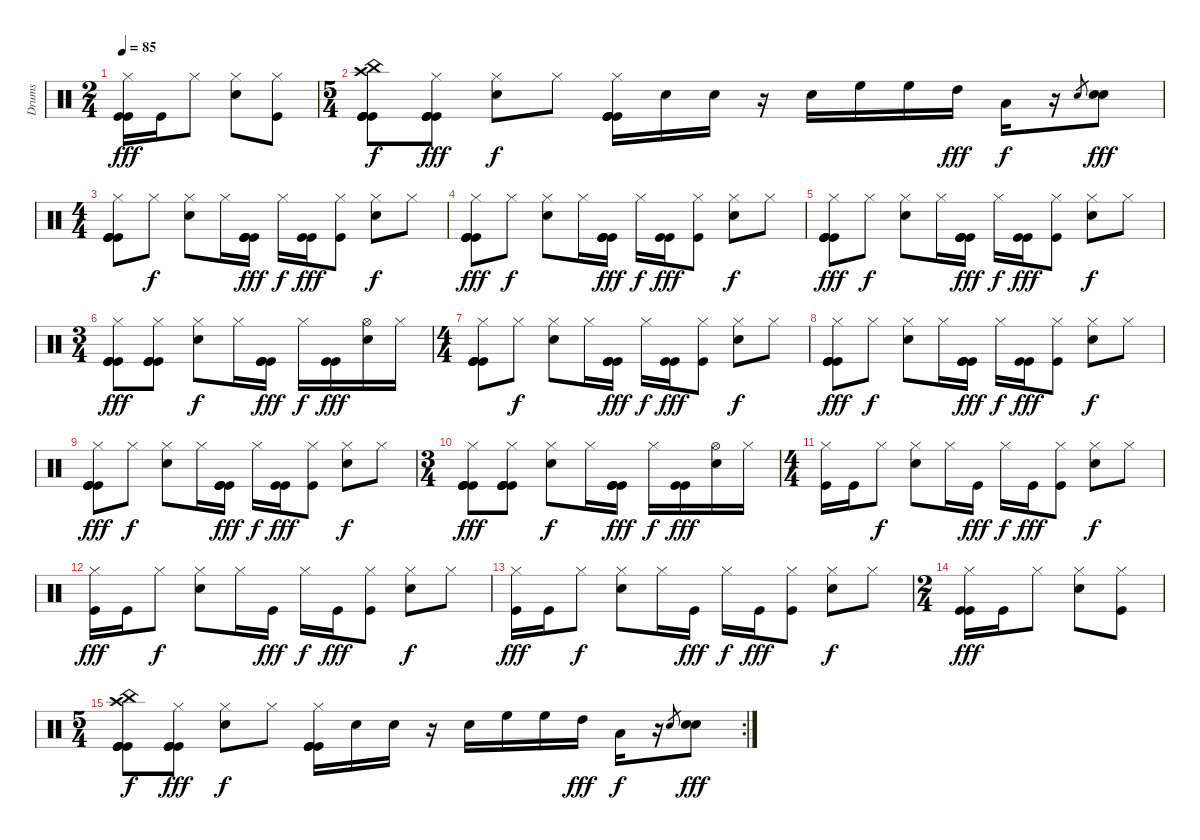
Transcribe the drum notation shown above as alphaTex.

\track ("Drums" "Drums") {instrument percussion}
\staff {score}
\articulation defaults
\ts (2 4)
\tempo 85
\clef neutral
\ks c
("Hi-Hat (closed)" "Kick (hit)" "Kick (hit)").16{dy fff} "Kick (hit)".16 "Hi-Hat (closed)".8 ("Snare (hit) 2" "Hi-Hat (closed)").8 ("Hi-Hat (closed)" "Kick (hit)").8 |
\ts (5 4)
("Kick (hit)" "China (hit)" "Kick (hit)" "Kick (hit)" "Kick (hit)" "Crash high (hit)").8{dy f} ("Hi-Hat (closed)" "Kick (hit)" "Kick (hit)" "Kick (hit)" "Kick (hit)").8{dy fff} ("Snare (hit) 2" "Hi-Hat (closed)").8{dy f} "Hi-Hat (closed)".8 ("Hi-Hat (closed)" "Kick (hit)" "Kick (hit)" "Kick (hit)" "Kick (hit)").16 "Snare (hit) 2".16 "Snare (hit) 2".16 r.16 "Snare (hit) 2".16 "High Floor Tom (hit)".16 "High Floor Tom (hit)".16 "High Tom (hit)".16{dy fff} "Low Tom (hit)".16{dy f} r.16 "Snare (hit) 2".8{gr} ("Snare (hit) 2" "Snare (hit) 2").8{dy fff} |
\ts (4 4)
("Hi-Hat (closed)" "Kick (hit)" "Kick (hit)" "Kick (hit)" "Kick (hit)").8 "Hi-Hat (closed)".8{dy f} ("Hi-Hat (closed)" "Snare (hit) 2").8 "Hi-Hat (closed)".16 ("Kick (hit)" "Kick (hit)" "Kick (hit)" "Kick (hit)").16{dy fff} "Hi-Hat (closed)".16{dy f} ("Kick (hit)" "Kick (hit)").16{dy fff} ("Kick (hit)" "Hi-Hat (closed)").8 ("Snare (hit) 2" "Hi-Hat (closed)").8{dy f} "Hi-Hat (closed)".8 |
("Hi-Hat (closed)" "Kick (hit)" "Kick (hit)" "Kick (hit)" "Kick (hit)").8{dy fff} "Hi-Hat (closed)".8{dy f} ("Hi-Hat (closed)" "Snare (hit) 2").8 "Hi-Hat (closed)".16 ("Kick (hit)" "Kick (hit)" "Kick (hit)" "Kick (hit)").16{dy fff} "Hi-Hat (closed)".16{dy f} ("Kick (hit)" "Kick (hit)").16{dy fff} ("Kick (hit)" "Hi-Hat (closed)").8 ("Snare (hit) 2" "Hi-Hat (closed)").8{dy f} "Hi-Hat (closed)".8 |
("Hi-Hat (closed)" "Kick (hit)" "Kick (hit)" "Kick (hit)" "Kick (hit)").8{dy fff} "Hi-Hat (closed)".8{dy f} ("Hi-Hat (closed)" "Snare (hit) 2").8 "Hi-Hat (closed)".16 ("Kick (hit)" "Kick (hit)" "Kick (hit)" "Kick (hit)").16{dy fff} "Hi-Hat (closed)".16{dy f} ("Kick (hit)" "Kick (hit)").16{dy fff} ("Kick (hit)" "Hi-Hat (closed)").8 ("Snare (hit) 2" "Hi-Hat (closed)").8{dy f} "Hi-Hat (closed)".8 |
\ts (3 4)
("Hi-Hat (closed)" "Kick (hit)" "Kick (hit)" "Kick (hit)" "Kick (hit)").8{dy fff} ("Hi-Hat (closed)" "Kick (hit)" "Kick (hit)" "Kick (hit)" "Kick (hit)").8 ("Hi-Hat (closed)" "Snare (hit) 2").8{dy f} "Hi-Hat (closed)".16 ("Kick (hit)" "Kick (hit)" "Kick (hit)" "Kick (hit)").16{dy fff} "Hi-Hat (closed)".16{dy f} ("Kick (hit)" "Kick (hit)").16{dy fff} ("Snare (hit) 2" "Hi-Hat (open)").16 "Hi-Hat (closed)".16 |
\ts (4 4)
("Hi-Hat (closed)" "Kick (hit)" "Kick (hit)" "Kick (hit)" "Kick (hit)").8 "Hi-Hat (closed)".8{dy f} ("Hi-Hat (closed)" "Snare (hit) 2").8 "Hi-Hat (closed)".16 ("Kick (hit)" "Kick (hit)" "Kick (hit)" "Kick (hit)").16{dy fff} "Hi-Hat (closed)".16{dy f} ("Kick (hit)" "Kick (hit)").16{dy fff} ("Kick (hit)" "Hi-Hat (closed)").8 ("Snare (hit) 2" "Hi-Hat (closed)").8{dy f} "Hi-Hat (closed)".8 |
("Hi-Hat (closed)" "Kick (hit)" "Kick (hit)" "Kick (hit)" "Kick (hit)").8{dy fff} "Hi-Hat (closed)".8{dy f} ("Hi-Hat (closed)" "Snare (hit) 2").8 "Hi-Hat (closed)".16 ("Kick (hit)" "Kick (hit)" "Kick (hit)" "Kick (hit)").16{dy fff} "Hi-Hat (closed)".16{dy f} ("Kick (hit)" "Kick (hit)").16{dy fff} ("Kick (hit)" "Hi-Hat (closed)").8 ("Snare (hit) 2" "Hi-Hat (closed)").8{dy f} "Hi-Hat (closed)".8 |
("Hi-Hat (closed)" "Kick (hit)" "Kick (hit)" "Kick (hit)" "Kick (hit)").8{dy fff} "Hi-Hat (closed)".8{dy f} ("Hi-Hat (closed)" "Snare (hit) 2").8 "Hi-Hat (closed)".16 ("Kick (hit)" "Kick (hit)" "Kick (hit)" "Kick (hit)").16{dy fff} "Hi-Hat (closed)".16{dy f} ("Kick (hit)" "Kick (hit)").16{dy fff} ("Kick (hit)" "Hi-Hat (closed)").8 ("Snare (hit) 2" "Hi-Hat (closed)").8{dy f} "Hi-Hat (closed)".8 |
\ts (3 4)
("Hi-Hat (closed)" "Kick (hit)" "Kick (hit)" "Kick (hit)" "Kick (hit)").8{dy fff} ("Hi-Hat (closed)" "Kick (hit)" "Kick (hit)" "Kick (hit)" "Kick (hit)").8 ("Hi-Hat (closed)" "Snare (hit) 2").8{dy f} "Hi-Hat (closed)".16 ("Kick (hit)" "Kick (hit)" "Kick (hit)" "Kick (hit)").16{dy fff} "Hi-Hat (closed)".16{dy f} ("Kick (hit)" "Kick (hit)").16{dy fff} ("Snare (hit) 2" "Hi-Hat (open)").16 "Hi-Hat (closed)".16 |
\ts (4 4)
("Kick (hit)" "Hi-Hat (closed)").16 "Kick (hit)".16 "Hi-Hat (closed)".8{dy f} ("Hi-Hat (closed)" "Snare (hit) 2").8 "Hi-Hat (closed)".16 "Kick (hit)".16{dy fff} "Hi-Hat (closed)".16{dy f} "Kick (hit)".16{dy fff} ("Hi-Hat (closed)" "Kick (hit)").8 ("Snare (hit) 2" "Hi-Hat (closed)").8{dy f} "Hi-Hat (closed)".8 |
("Kick (hit)" "Hi-Hat (closed)").16{dy fff} "Kick (hit)".16 "Hi-Hat (closed)".8{dy f} ("Hi-Hat (closed)" "Snare (hit) 2").8 "Hi-Hat (closed)".16 "Kick (hit)".16{dy fff} "Hi-Hat (closed)".16{dy f} "Kick (hit)".16{dy fff} ("Hi-Hat (closed)" "Kick (hit)").8 ("Snare (hit) 2" "Hi-Hat (closed)").8{dy f} "Hi-Hat (closed)".8 |
("Kick (hit)" "Hi-Hat (closed)").16{dy fff} "Kick (hit)".16 "Hi-Hat (closed)".8{dy f} ("Hi-Hat (closed)" "Snare (hit) 2").8 "Hi-Hat (closed)".16 "Kick (hit)".16{dy fff} "Hi-Hat (closed)".16{dy f} "Kick (hit)".16{dy fff} ("Hi-Hat (closed)" "Kick (hit)").8 ("Snare (hit) 2" "Hi-Hat (closed)").8{dy f} "Hi-Hat (closed)".8 |
\ts (2 4)
("Hi-Hat (closed)" "Kick (hit)" "Kick (hit)").16{dy fff} "Kick (hit)".16 "Hi-Hat (closed)".8 ("Snare (hit) 2" "Hi-Hat (closed)").8 ("Hi-Hat (closed)" "Kick (hit)").8 |
\rc 2
\ts (5 4)
("Kick (hit)" "China (hit)" "Kick (hit)" "Kick (hit)" "Kick (hit)" "Crash high (hit)").8{dy f} ("Hi-Hat (closed)" "Kick (hit)" "Kick (hit)" "Kick (hit)" "Kick (hit)").8{dy fff} ("Snare (hit) 2" "Hi-Hat (closed)").8{dy f} "Hi-Hat (closed)".8 ("Hi-Hat (closed)" "Kick (hit)" "Kick (hit)" "Kick (hit)" "Kick (hit)").16 "Snare (hit) 2".16 "Snare (hit) 2".16 r.16 "Snare (hit) 2".16 "High Floor Tom (hit)".16 "High Floor Tom (hit)".16 "High Tom (hit)".16{dy fff} "Low Tom (hit)".16{dy f} r.16 "Snare (hit) 2".8{gr} ("Snare (hit) 2" "Snare (hit) 2").8{dy fff}
